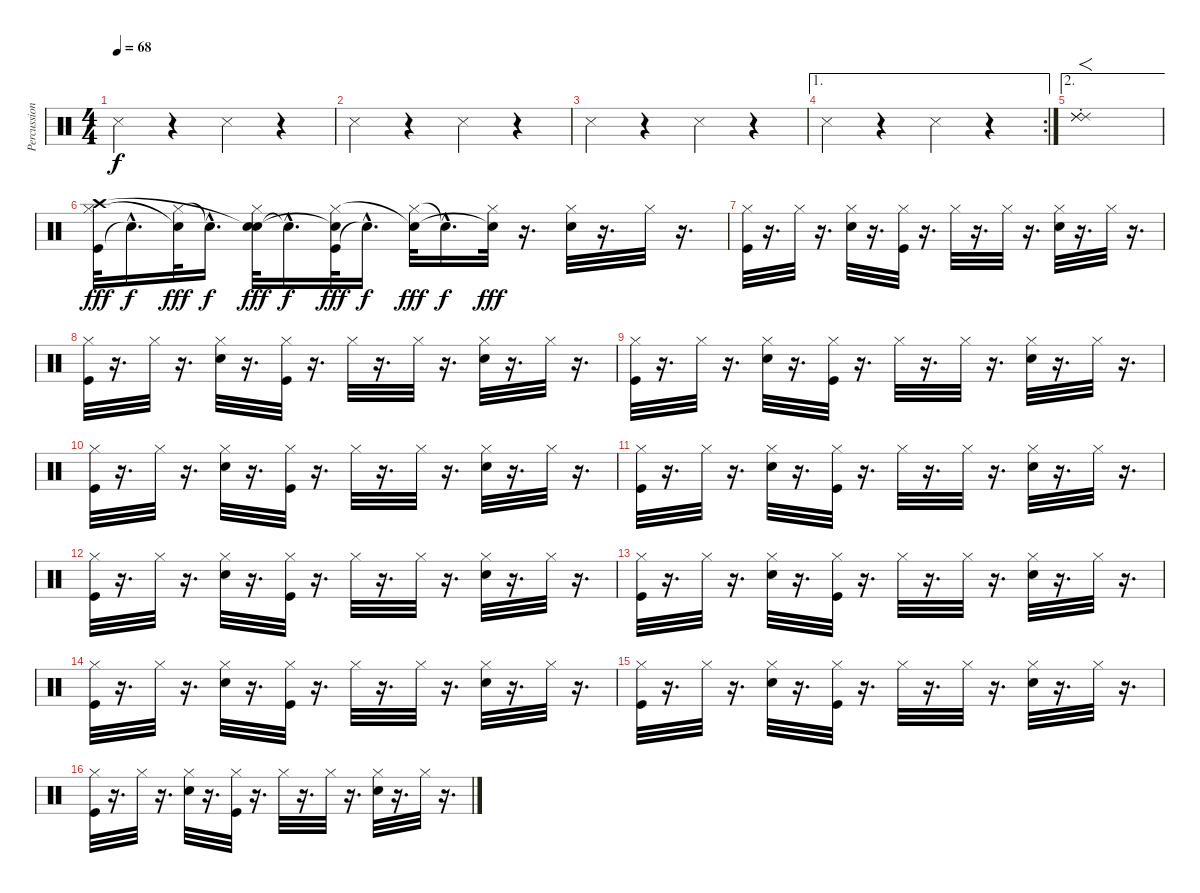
\track ("Percussion" "Percussion") {instrument percussion}
\staff {score}
\articulation defaults
\ts (4 4)
\tempo 68
\clef neutral
\ks c "Snare (side stick) 3".4{dy f}
r.4 "Snare (side stick) 3".4 r.4 |
"Snare (side stick) 3".4 r.4 "Snare (side stick) 3".4 r.4 |
"Snare (side stick) 3".4 r.4 "Snare (side stick) 3".4 r.4 |
\ae 1
\rc 2 "Snare (side stick) 3".4
r.4 "Snare (side stick) 3".4 r.4 |
\ae 2
("Ride (choke) 2" "Ride (choke) 2" "Ride (choke) 2").1{f} |
("Kick (hit)" "Hi-Hat (closed)" "Crash high (hit)").32{dy fff} "Snare (hit)"{hac t}.16{d dy f} ("Hi-Hat (closed)" "Snare (hit)"{t}).32{dy fff} "Snare (hit)"{hac t}.16{d dy f} ("Electric Snare (hit)" "Hi-Hat (closed)" "Snare (hit)"{t}).32{dy fff} "Snare (hit)"{hac t}.16{d dy f} ("Kick (hit)" "Hi-Hat (closed)" "Snare (hit)"{t}).32{dy fff} "Snare (hit)"{hac t}.16{d dy f} ("Hi-Hat (closed)" "Snare (hit)"{t}).32{dy fff} "Snare (hit)"{hac t}.16{d dy f} ("Hi-Hat (closed)" "Snare (hit)"{t}).32{dy fff} r.16{d} ("Electric Snare (hit)" "Hi-Hat (closed)").32 r.16{d} "Hi-Hat (closed)".32 r.16{d} |
("Kick (hit)" "Hi-Hat (closed)").32 r.16{d} "Hi-Hat (closed)".32 r.16{d} ("Electric Snare (hit)" "Hi-Hat (closed)").32 r.16{d} ("Kick (hit)" "Hi-Hat (closed)").32 r.16{d} "Hi-Hat (closed)".32 r.16{d} "Hi-Hat (closed)".32 r.16{d} ("Electric Snare (hit)" "Hi-Hat (closed)").32 r.16{d} "Hi-Hat (closed)".32 r.16{d} |
("Kick (hit)" "Hi-Hat (closed)").32 r.16{d} "Hi-Hat (closed)".32 r.16{d} ("Electric Snare (hit)" "Hi-Hat (closed)").32 r.16{d} ("Kick (hit)" "Hi-Hat (closed)").32 r.16{d} "Hi-Hat (closed)".32 r.16{d} "Hi-Hat (closed)".32 r.16{d} ("Electric Snare (hit)" "Hi-Hat (closed)").32 r.16{d} "Hi-Hat (closed)".32 r.16{d} |
("Kick (hit)" "Hi-Hat (closed)").32 r.16{d} "Hi-Hat (closed)".32 r.16{d} ("Electric Snare (hit)" "Hi-Hat (closed)").32 r.16{d} ("Kick (hit)" "Hi-Hat (closed)").32 r.16{d} "Hi-Hat (closed)".32 r.16{d} "Hi-Hat (closed)".32 r.16{d} ("Electric Snare (hit)" "Hi-Hat (closed)").32 r.16{d} "Hi-Hat (closed)".32 r.16{d} |
("Kick (hit)" "Hi-Hat (closed)").32 r.16{d} "Hi-Hat (closed)".32 r.16{d} ("Electric Snare (hit)" "Hi-Hat (closed)").32 r.16{d} ("Kick (hit)" "Hi-Hat (closed)").32 r.16{d} "Hi-Hat (closed)".32 r.16{d} "Hi-Hat (closed)".32 r.16{d} ("Electric Snare (hit)" "Hi-Hat (closed)").32 r.16{d} "Hi-Hat (closed)".32 r.16{d} |
("Kick (hit)" "Hi-Hat (closed)").32 r.16{d} "Hi-Hat (closed)".32 r.16{d} ("Electric Snare (hit)" "Hi-Hat (closed)").32 r.16{d} ("Kick (hit)" "Hi-Hat (closed)").32 r.16{d} "Hi-Hat (closed)".32 r.16{d} "Hi-Hat (closed)".32 r.16{d} ("Electric Snare (hit)" "Hi-Hat (closed)").32 r.16{d} "Hi-Hat (closed)".32 r.16{d} |
("Kick (hit)" "Hi-Hat (closed)").32 r.16{d} "Hi-Hat (closed)".32 r.16{d} ("Electric Snare (hit)" "Hi-Hat (closed)").32 r.16{d} ("Kick (hit)" "Hi-Hat (closed)").32 r.16{d} "Hi-Hat (closed)".32 r.16{d} "Hi-Hat (closed)".32 r.16{d} ("Electric Snare (hit)" "Hi-Hat (closed)").32 r.16{d} "Hi-Hat (closed)".32 r.16{d} |
("Kick (hit)" "Hi-Hat (closed)").32 r.16{d} "Hi-Hat (closed)".32 r.16{d} ("Electric Snare (hit)" "Hi-Hat (closed)").32 r.16{d} ("Kick (hit)" "Hi-Hat (closed)").32 r.16{d} "Hi-Hat (closed)".32 r.16{d} "Hi-Hat (closed)".32 r.16{d} ("Electric Snare (hit)" "Hi-Hat (closed)").32 r.16{d} "Hi-Hat (closed)".32 r.16{d} |
("Kick (hit)" "Hi-Hat (closed)").32 r.16{d} "Hi-Hat (closed)".32 r.16{d} ("Electric Snare (hit)" "Hi-Hat (closed)").32 r.16{d} ("Kick (hit)" "Hi-Hat (closed)").32 r.16{d} "Hi-Hat (closed)".32 r.16{d} "Hi-Hat (closed)".32 r.16{d} ("Electric Snare (hit)" "Hi-Hat (closed)").32 r.16{d} "Hi-Hat (closed)".32 r.16{d} |
("Kick (hit)" "Hi-Hat (closed)").32 r.16{d} "Hi-Hat (closed)".32 r.16{d} ("Electric Snare (hit)" "Hi-Hat (closed)").32 r.16{d} ("Kick (hit)" "Hi-Hat (closed)").32 r.16{d} "Hi-Hat (closed)".32 r.16{d} "Hi-Hat (closed)".32 r.16{d} ("Electric Snare (hit)" "Hi-Hat (closed)").32 r.16{d} "Hi-Hat (closed)".32 r.16{d} |
("Kick (hit)" "Hi-Hat (closed)").32 r.16{d} "Hi-Hat (closed)".32 r.16{d} ("Electric Snare (hit)" "Hi-Hat (closed)").32 r.16{d} ("Kick (hit)" "Hi-Hat (closed)").32 r.16{d} "Hi-Hat (closed)".32 r.16{d} "Hi-Hat (closed)".32 r.16{d} ("Electric Snare (hit)" "Hi-Hat (closed)").32 r.16{d} "Hi-Hat (closed)".32 r.16{d}
